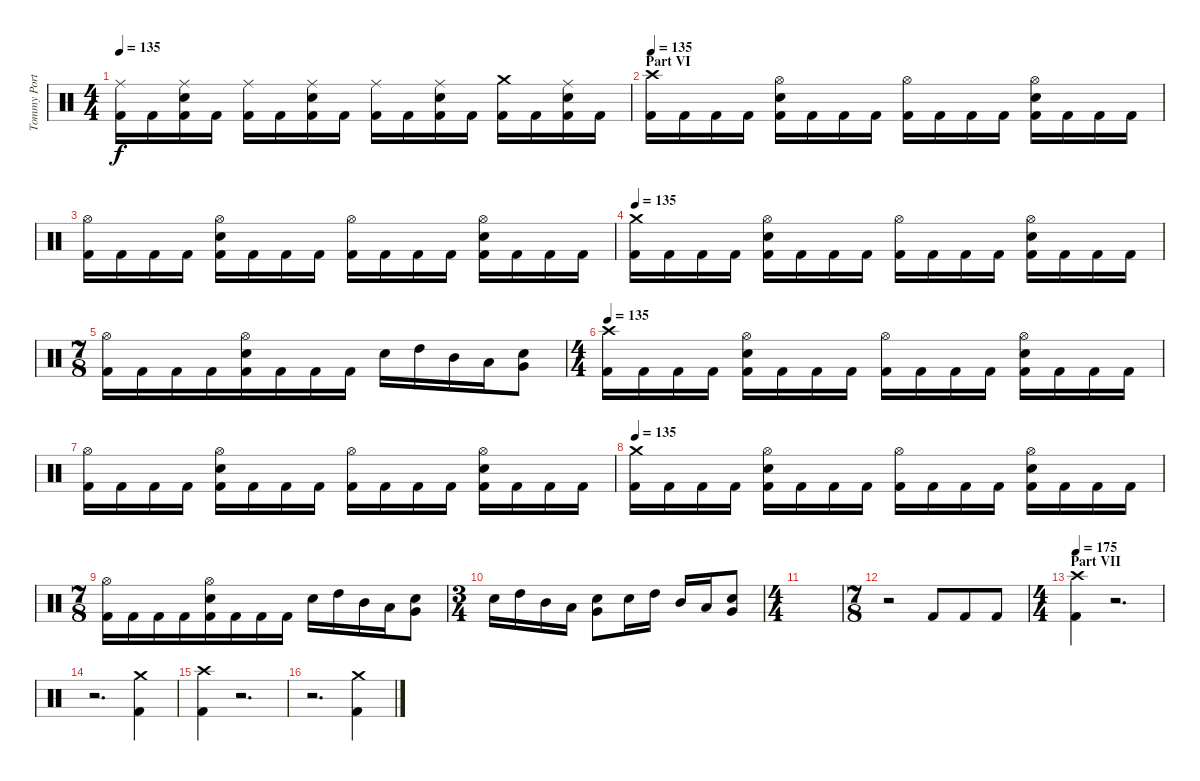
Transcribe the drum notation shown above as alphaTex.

\track ("Tommy Portimo - Drums" "Tommy Port") {instrument percussion}
\staff {score}
\articulation defaults
\ts (4 4)
\tempo 135
\clef neutral
\ks c
("Ride (middle)" "Kick (hit) 2").16{dy f} "Kick (hit) 2".16 ("Ride (middle)" "Electric Snare (hit)" "Kick (hit) 2").16 "Kick (hit) 2".16 ("Ride (middle)" "Kick (hit) 2").16 "Kick (hit) 2".16 ("Ride (middle)" "Electric Snare (hit)" "Kick (hit) 2").16 "Kick (hit) 2".16 ("Ride (middle)" "Kick (hit) 2").16 "Kick (hit) 2".16 ("Ride (middle)" "Electric Snare (hit)" "Kick (hit) 2").16 "Kick (hit) 2".16 ("Crash medium (hit)" "Kick (hit) 2").16 "Kick (hit) 2".16 ("Ride (middle)" "Electric Snare (hit)" "Kick (hit) 2").16 "Kick (hit) 2".16 |
\section ("" "Part VI")
\tempo 135
("Crash high (hit)" "Kick (hit) 2").16 "Kick (hit) 2".16 "Kick (hit) 2".16 "Kick (hit) 2".16 ("Hi-Hat (open)" "Electric Snare (hit)" "Kick (hit) 2").16 "Kick (hit) 2".16 "Kick (hit) 2".16 "Kick (hit) 2".16 ("Hi-Hat (open)" "Kick (hit) 2").16 "Kick (hit) 2".16 "Kick (hit) 2".16 "Kick (hit) 2".16 ("Hi-Hat (open)" "Electric Snare (hit)" "Kick (hit) 2").16 "Kick (hit) 2".16 "Kick (hit) 2".16 "Kick (hit) 2".16 |
("Hi-Hat (open)" "Kick (hit) 2").16 "Kick (hit) 2".16 "Kick (hit) 2".16 "Kick (hit) 2".16 ("Hi-Hat (open)" "Electric Snare (hit)" "Kick (hit) 2").16 "Kick (hit) 2".16 "Kick (hit) 2".16 "Kick (hit) 2".16 ("Hi-Hat (open)" "Kick (hit) 2").16 "Kick (hit) 2".16 "Kick (hit) 2".16 "Kick (hit) 2".16 ("Hi-Hat (open)" "Electric Snare (hit)" "Kick (hit) 2").16 "Kick (hit) 2".16 "Kick (hit) 2".16 "Kick (hit) 2".16 |
\tempo 135
("Crash medium (hit)" "Kick (hit) 2").16 "Kick (hit) 2".16 "Kick (hit) 2".16 "Kick (hit) 2".16 ("Hi-Hat (open)" "Electric Snare (hit)" "Kick (hit) 2").16 "Kick (hit) 2".16 "Kick (hit) 2".16 "Kick (hit) 2".16 ("Hi-Hat (open)" "Kick (hit) 2").16 "Kick (hit) 2".16 "Kick (hit) 2".16 "Kick (hit) 2".16 ("Hi-Hat (open)" "Electric Snare (hit)" "Kick (hit) 2").16 "Kick (hit) 2".16 "Kick (hit) 2".16 "Kick (hit) 2".16 |
\ts (7 8)
("Hi-Hat (open)" "Kick (hit) 2").16 "Kick (hit) 2".16 "Kick (hit) 2".16 "Kick (hit) 2".16 ("Hi-Hat (open)" "Electric Snare (hit)" "Kick (hit) 2").16 "Kick (hit) 2".16 "Kick (hit) 2".16 "Kick (hit) 2".16 "Electric Snare (hit)".16 "High Tom (hit)".16 "Mid Tom (hit)".16 "Low Tom (hit)".16 ("Very Low Tom (hit)" "Electric Snare (hit)").8 |
\ts (4 4)
\tempo 135
("Crash high (hit)" "Kick (hit) 2").16 "Kick (hit) 2".16 "Kick (hit) 2".16 "Kick (hit) 2".16 ("Hi-Hat (open)" "Electric Snare (hit)" "Kick (hit) 2").16 "Kick (hit) 2".16 "Kick (hit) 2".16 "Kick (hit) 2".16 ("Hi-Hat (open)" "Kick (hit) 2").16 "Kick (hit) 2".16 "Kick (hit) 2".16 "Kick (hit) 2".16 ("Hi-Hat (open)" "Electric Snare (hit)" "Kick (hit) 2").16 "Kick (hit) 2".16 "Kick (hit) 2".16 "Kick (hit) 2".16 |
("Hi-Hat (open)" "Kick (hit) 2").16 "Kick (hit) 2".16 "Kick (hit) 2".16 "Kick (hit) 2".16 ("Hi-Hat (open)" "Electric Snare (hit)" "Kick (hit) 2").16 "Kick (hit) 2".16 "Kick (hit) 2".16 "Kick (hit) 2".16 ("Hi-Hat (open)" "Kick (hit) 2").16 "Kick (hit) 2".16 "Kick (hit) 2".16 "Kick (hit) 2".16 ("Hi-Hat (open)" "Electric Snare (hit)" "Kick (hit) 2").16 "Kick (hit) 2".16 "Kick (hit) 2".16 "Kick (hit) 2".16 |
\tempo 135
("Crash medium (hit)" "Kick (hit) 2").16 "Kick (hit) 2".16 "Kick (hit) 2".16 "Kick (hit) 2".16 ("Hi-Hat (open)" "Electric Snare (hit)" "Kick (hit) 2").16 "Kick (hit) 2".16 "Kick (hit) 2".16 "Kick (hit) 2".16 ("Hi-Hat (open)" "Kick (hit) 2").16 "Kick (hit) 2".16 "Kick (hit) 2".16 "Kick (hit) 2".16 ("Hi-Hat (open)" "Electric Snare (hit)" "Kick (hit) 2").16 "Kick (hit) 2".16 "Kick (hit) 2".16 "Kick (hit) 2".16 |
\ts (7 8)
("Hi-Hat (open)" "Kick (hit) 2").16 "Kick (hit) 2".16 "Kick (hit) 2".16 "Kick (hit) 2".16 ("Hi-Hat (open)" "Electric Snare (hit)" "Kick (hit) 2").16 "Kick (hit) 2".16 "Kick (hit) 2".16 "Kick (hit) 2".16 "Electric Snare (hit)".16 "High Tom (hit)".16 "Mid Tom (hit)".16 "Low Tom (hit)".16 ("Very Low Tom (hit)" "Electric Snare (hit)").8 |
\ts (3 4)
"Electric Snare (hit)".16 "High Tom (hit)".16 "Mid Tom (hit)".16 "Low Tom (hit)".16 ("Very Low Tom (hit)" "Electric Snare (hit)").8 "Electric Snare (hit)".16 "High Tom (hit)".16 "Mid Tom (hit)".16 "Low Tom (hit)".16 ("Very Low Tom (hit)" "Electric Snare (hit)").8 |
\ts (4 4)
|
\ts (7 8)
r.2 "Kick (hit) 2".8 "Kick (hit) 2".8 "Kick (hit) 2".8 |
\ts (4 4)
\section ("" "Part VII")
\tempo 175
("Crash high (hit)" "Kick (hit) 2").4 r.2{d} |
r.2{d} ("Crash medium (hit)" "Kick (hit) 2").4 |
("Crash high (hit)" "Kick (hit) 2").4 r.2{d} |
r.2{d} ("Crash medium (hit)" "Kick (hit) 2").4
